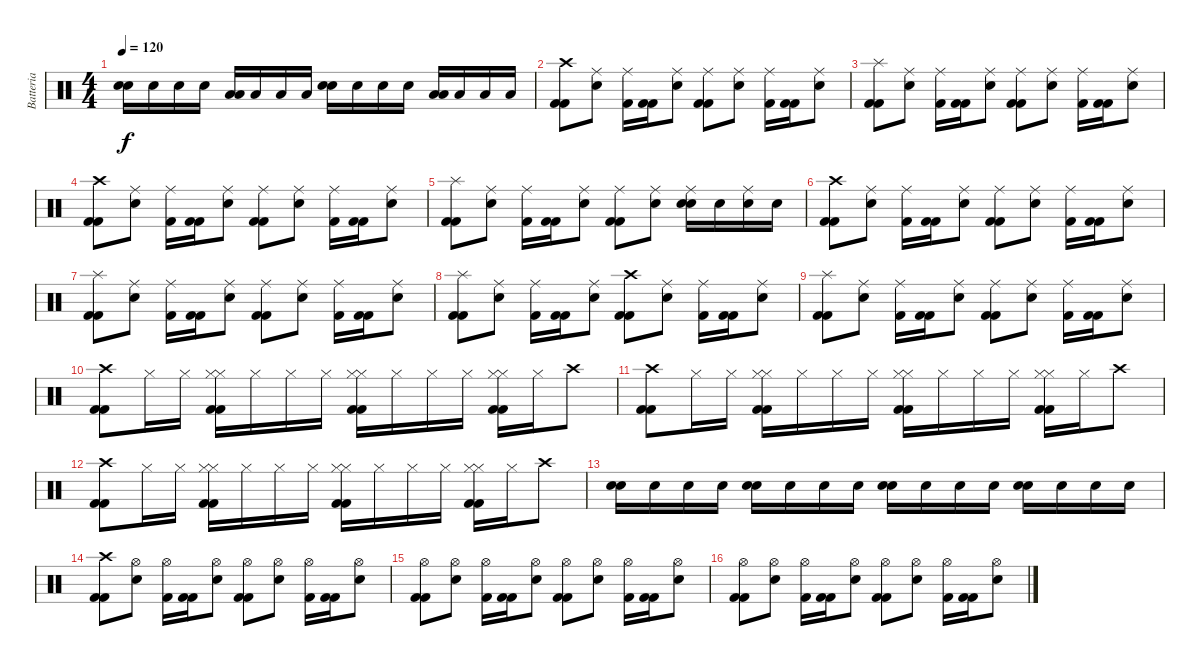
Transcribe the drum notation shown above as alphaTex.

\track ("Batteria" "Batteria") {instrument percussion}
\staff {score}
\articulation defaults
\ts (4 4)
\tempo 120
\clef neutral
\ks c
("Snare (hit) 2" "Snare (hit) 2").16{dy f} "Snare (hit) 2".16 "Snare (hit) 2".16 "Snare (hit) 2".16 ("Low Tom (hit)" "Low Tom (hit)").16 "Low Tom (hit)".16 "Low Tom (hit)".16 "Low Tom (hit)".16 ("Snare (hit) 2" "Snare (hit) 2").16 "Snare (hit) 2".16 "Snare (hit) 2".16 "Snare (hit) 2".16 ("Low Floor Tom (hit)" "Low Floor Tom (hit)").16 "Low Floor Tom (hit)".16 "Low Floor Tom (hit)".16 "Low Floor Tom (hit)".16 |
("Kick (hit) 2" "Kick (hit) 2" "Crash high (hit)").8 ("Snare (hit) 2" "Ride (middle)").8 ("Kick (hit) 2" "Ride (middle)").16 ("Kick (hit) 2" "Kick (hit) 2").16 ("Snare (hit) 2" "Ride (middle)").8 ("Kick (hit) 2" "Kick (hit) 2" "Ride (middle)").8 ("Snare (hit) 2" "Ride (middle)").8 ("Kick (hit) 2" "Ride (middle)").16 ("Kick (hit) 2" "Kick (hit) 2").16 ("Snare (hit) 2" "Ride (middle)").8 |
("Kick (hit) 2" "Kick (hit) 2" "Splash (hit)").8 ("Snare (hit) 2" "Ride (middle)").8 ("Kick (hit) 2" "Ride (middle)").16 ("Kick (hit) 2" "Kick (hit) 2").16 ("Snare (hit) 2" "Ride (middle)").8 ("Kick (hit) 2" "Kick (hit) 2" "Ride (middle)").8 ("Snare (hit) 2" "Ride (middle)").8 ("Kick (hit) 2" "Ride (middle)").16 ("Kick (hit) 2" "Kick (hit) 2").16 ("Snare (hit) 2" "Ride (middle)").8 |
("Kick (hit) 2" "Kick (hit) 2" "Crash high (hit)").8 ("Snare (hit) 2" "Ride (middle)").8 ("Kick (hit) 2" "Ride (middle)").16 ("Kick (hit) 2" "Kick (hit) 2").16 ("Snare (hit) 2" "Ride (middle)").8 ("Kick (hit) 2" "Kick (hit) 2" "Ride (middle)").8 ("Snare (hit) 2" "Ride (middle)").8 ("Kick (hit) 2" "Ride (middle)").16 ("Kick (hit) 2" "Kick (hit) 2").16 ("Snare (hit) 2" "Ride (middle)").8 |
("Kick (hit) 2" "Kick (hit) 2" "Splash (hit)").8 ("Ride (middle)" "Snare (hit) 2").8 ("Ride (middle)" "Kick (hit) 2").16 ("Kick (hit) 2" "Kick (hit) 2").16 ("Ride (middle)" "Snare (hit) 2").8 ("Ride (middle)" "Kick (hit) 2" "Kick (hit) 2").8 ("Ride (middle)" "Snare (hit) 2").8 ("Ride (middle)" "Snare (hit) 2" "Snare (hit) 2").16 "Snare (hit) 2".16 ("Ride (middle)" "Snare (hit) 2").16 "Snare (hit) 2".16 |
("Kick (hit) 2" "Kick (hit) 2" "Crash high (hit)").8 ("Snare (hit) 2" "Ride (middle)").8 ("Kick (hit) 2" "Ride (middle)").16 ("Kick (hit) 2" "Kick (hit) 2").16 ("Snare (hit) 2" "Ride (middle)").8 ("Kick (hit) 2" "Kick (hit) 2" "Ride (middle)").8 ("Snare (hit) 2" "Ride (middle)").8 ("Kick (hit) 2" "Ride (middle)").16 ("Kick (hit) 2" "Kick (hit) 2").16 ("Snare (hit) 2" "Ride (middle)").8 |
("Kick (hit) 2" "Kick (hit) 2" "Splash (hit)").8 ("Snare (hit) 2" "Ride (middle)").8 ("Kick (hit) 2" "Ride (middle)").16 ("Kick (hit) 2" "Kick (hit) 2").16 ("Snare (hit) 2" "Ride (middle)").8 ("Kick (hit) 2" "Kick (hit) 2" "Ride (middle)").8 ("Snare (hit) 2" "Ride (middle)").8 ("Kick (hit) 2" "Ride (middle)").16 ("Kick (hit) 2" "Kick (hit) 2").16 ("Snare (hit) 2" "Ride (middle)").8 |
("Kick (hit) 2" "Kick (hit) 2" "Splash (hit)").8 ("Snare (hit) 2" "Ride (middle)").8 ("Kick (hit) 2" "Ride (middle)").16 ("Kick (hit) 2" "Kick (hit) 2").16 ("Snare (hit) 2" "Ride (middle)").8 ("Kick (hit) 2" "Kick (hit) 2" "Crash high (hit)").8 ("Snare (hit) 2" "Ride (middle)").8 ("Kick (hit) 2" "Ride (middle)").16 ("Kick (hit) 2" "Kick (hit) 2").16 ("Snare (hit) 2" "Ride (middle)").8 |
("Kick (hit) 2" "Kick (hit) 2" "Splash (hit)").8 ("Snare (hit) 2" "Ride (middle)").8 ("Kick (hit) 2" "Ride (middle)").16 ("Kick (hit) 2" "Kick (hit) 2").16 ("Snare (hit) 2" "Ride (middle)").8 ("Ride (middle)" "Kick (hit) 2" "Kick (hit) 2").8 ("Snare (hit) 2" "Ride (middle)").8 ("Kick (hit) 2" "Ride (middle)").16 ("Kick (hit) 2" "Kick (hit) 2").16 ("Snare (hit) 2" "Ride (middle)").8 |
("Kick (hit) 2" "Kick (hit) 2" "Crash high (hit)").8 "Hi-Hat (closed)".16 "Hi-Hat (closed)".16 ("Kick (hit) 2" "Hi-Hat (closed)" "Hi-Hat (closed)" "Kick (hit) 2").16 "Hi-Hat (closed)".16 "Hi-Hat (closed)".16 "Hi-Hat (closed)".16 ("Kick (hit) 2" "Hi-Hat (closed)" "Hi-Hat (closed)" "Kick (hit) 2").16 "Hi-Hat (closed)".16 "Hi-Hat (closed)".16 "Hi-Hat (closed)".16 ("Kick (hit) 2" "Hi-Hat (closed)" "Hi-Hat (closed)" "Kick (hit) 2").16 "Hi-Hat (closed)".16 "Crash high (hit)".8 |
("Kick (hit) 2" "Kick (hit) 2" "Crash high (hit)").8 "Hi-Hat (closed)".16 "Hi-Hat (closed)".16 ("Kick (hit) 2" "Hi-Hat (closed)" "Hi-Hat (closed)" "Kick (hit) 2").16 "Hi-Hat (closed)".16 "Hi-Hat (closed)".16 "Hi-Hat (closed)".16 ("Kick (hit) 2" "Hi-Hat (closed)" "Hi-Hat (closed)" "Kick (hit) 2").16 "Hi-Hat (closed)".16 "Hi-Hat (closed)".16 "Hi-Hat (closed)".16 ("Kick (hit) 2" "Hi-Hat (closed)" "Hi-Hat (closed)" "Kick (hit) 2").16 "Hi-Hat (closed)".16 "Crash high (hit)".8 |
("Kick (hit) 2" "Kick (hit) 2" "Crash high (hit)").8 "Hi-Hat (closed)".16 "Hi-Hat (closed)".16 ("Kick (hit) 2" "Hi-Hat (closed)" "Hi-Hat (closed)" "Kick (hit) 2").16 "Hi-Hat (closed)".16 "Hi-Hat (closed)".16 "Hi-Hat (closed)".16 ("Kick (hit) 2" "Hi-Hat (closed)" "Hi-Hat (closed)" "Kick (hit) 2").16 "Hi-Hat (closed)".16 "Hi-Hat (closed)".16 "Hi-Hat (closed)".16 ("Kick (hit) 2" "Hi-Hat (closed)" "Hi-Hat (closed)" "Kick (hit) 2").16 "Hi-Hat (closed)".16 "Crash high (hit)".8 |
("Snare (hit) 2" "Snare (hit) 2").16 "Snare (hit) 2".16 "Snare (hit) 2".16 "Snare (hit) 2".16 ("Snare (hit) 2" "Snare (hit) 2").16 "Snare (hit) 2".16 "Snare (hit) 2".16 "Snare (hit) 2".16 ("Snare (hit) 2" "Snare (hit) 2").16 "Snare (hit) 2".16 "Snare (hit) 2".16 "Snare (hit) 2".16 ("Snare (hit) 2" "Snare (hit) 2").16 "Snare (hit) 2".16 "Snare (hit) 2".16 "Snare (hit) 2".16 |
("Kick (hit) 2" "Kick (hit) 2" "Crash high (hit)").8 ("Snare (hit) 2" "Hi-Hat (open)").8 ("Kick (hit) 2" "Hi-Hat (open)").16 ("Kick (hit) 2" "Kick (hit) 2").16 ("Snare (hit) 2" "Hi-Hat (open)").8 ("Kick (hit) 2" "Kick (hit) 2" "Hi-Hat (open)").8 ("Snare (hit) 2" "Hi-Hat (open)").8 ("Kick (hit) 2" "Hi-Hat (open)").16 ("Kick (hit) 2" "Kick (hit) 2").16 ("Snare (hit) 2" "Hi-Hat (open)").8 |
("Hi-Hat (open)" "Kick (hit) 2" "Kick (hit) 2").8 ("Snare (hit) 2" "Hi-Hat (open)").8 ("Kick (hit) 2" "Hi-Hat (open)").16 ("Kick (hit) 2" "Kick (hit) 2").16 ("Snare (hit) 2" "Hi-Hat (open)").8 ("Hi-Hat (open)" "Kick (hit) 2" "Kick (hit) 2").8 ("Snare (hit) 2" "Hi-Hat (open)").8 ("Kick (hit) 2" "Hi-Hat (open)").16 ("Kick (hit) 2" "Kick (hit) 2").16 ("Snare (hit) 2" "Hi-Hat (open)").8 |
("Hi-Hat (open)" "Kick (hit) 2" "Kick (hit) 2").8 ("Snare (hit) 2" "Hi-Hat (open)").8 ("Kick (hit) 2" "Hi-Hat (open)").16 ("Kick (hit) 2" "Kick (hit) 2").16 ("Snare (hit) 2" "Hi-Hat (open)").8 ("Hi-Hat (open)" "Kick (hit) 2" "Kick (hit) 2").8 ("Snare (hit) 2" "Hi-Hat (open)").8 ("Kick (hit) 2" "Hi-Hat (open)").16 ("Kick (hit) 2" "Kick (hit) 2").16 ("Snare (hit) 2" "Hi-Hat (open)").8
